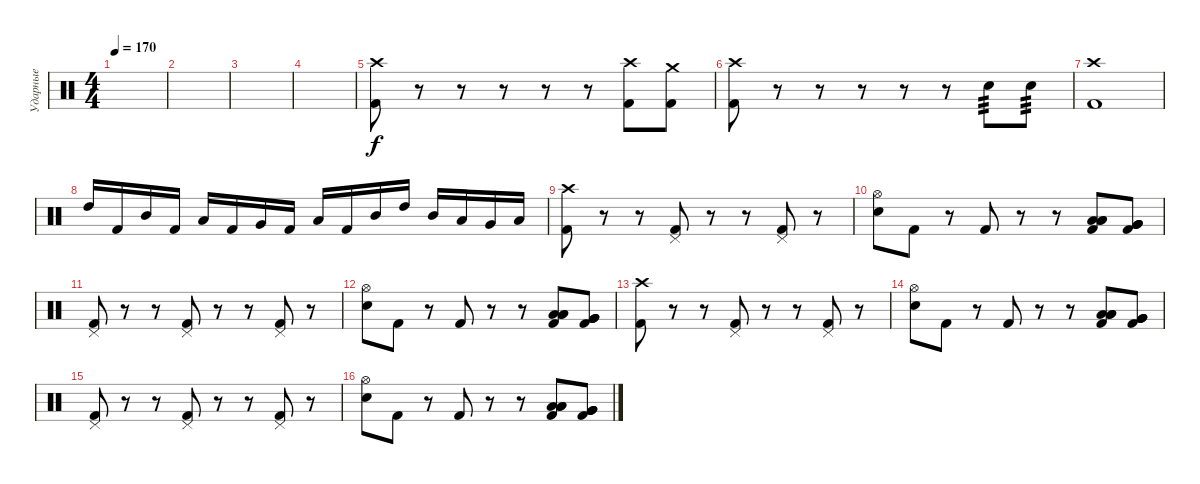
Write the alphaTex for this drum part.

\track ("Ударные" "Ударные") {instrument percussion}
\staff {score}
\articulation defaults
\ts (4 4)
\tempo 170
\clef neutral
\ks c
|
|
|
|
("Crash high (hit)" "Kick (hit) 2").8 r.8 r.8 r.8 r.8 r.8 ("Crash high (hit)" "Kick (hit) 2").8 ("Crash medium (hit)" "Kick (hit) 2").8 |
("Crash high (hit)" "Kick (hit) 2").8 r.8 r.8 r.8 r.8 r.8 "Snare (hit) 2".8{tp 3} "Snare (hit) 2".8{tp 3} |
("Crash high (hit)" "Kick (hit) 2").1 |
"High Tom (hit)".16 "Kick (hit) 2".16 "Mid Tom (hit)".16 "Kick (hit) 2".16 "Low Tom (hit)".16 "Kick (hit) 2".16 "Very Low Tom (hit)".16 "Kick (hit) 2".16 "Low Floor Tom (hit)".16 "Kick (hit) 2".16 "Mid Tom (hit)".16 "High Tom (hit)".16 "Mid Tom (hit)".16 "Low Tom (hit)".16 "Very Low Tom (hit)".16 "Low Floor Tom (hit)".16 |
("Crash high (hit)" "Kick (hit) 2").8 r.8 r.8 ("Pedal Hi-Hat (hit)" "Kick (hit) 2").8 r.8 r.8 ("Pedal Hi-Hat (hit)" "Kick (hit) 2").8 r.8 |
("Hi-Hat (open)" "Snare (hit) 2").8 "Kick (hit) 2".8 r.8 "Kick (hit) 2".8 r.8 r.8 ("Low Tom (hit)" "Low Tom (hit)" "Low Tom (hit)" "Kick (hit) 2").8 ("Very Low Tom (hit)" "Very Low Tom (hit)" "Very Low Tom (hit)" "Kick (hit) 2").8 |
("Pedal Hi-Hat (hit)" "Kick (hit) 2").8 r.8 r.8 ("Pedal Hi-Hat (hit)" "Kick (hit) 2").8 r.8 r.8 ("Pedal Hi-Hat (hit)" "Kick (hit) 2").8 r.8 |
("Hi-Hat (open)" "Snare (hit) 2").8 "Kick (hit) 2".8 r.8 "Kick (hit) 2".8 r.8 r.8 ("Low Tom (hit)" "Low Tom (hit)" "Low Tom (hit)" "Kick (hit) 2").8 ("Very Low Tom (hit)" "Very Low Tom (hit)" "Very Low Tom (hit)" "Kick (hit) 2").8 |
("Crash high (hit)" "Kick (hit) 2").8 r.8 r.8 ("Pedal Hi-Hat (hit)" "Kick (hit) 2").8 r.8 r.8 ("Pedal Hi-Hat (hit)" "Kick (hit) 2").8 r.8 |
("Hi-Hat (open)" "Snare (hit) 2").8 "Kick (hit) 2".8 r.8 "Kick (hit) 2".8 r.8 r.8 ("Low Tom (hit)" "Low Tom (hit)" "Low Tom (hit)" "Kick (hit) 2").8 ("Very Low Tom (hit)" "Very Low Tom (hit)" "Very Low Tom (hit)" "Kick (hit) 2").8 |
("Pedal Hi-Hat (hit)" "Kick (hit) 2").8 r.8 r.8 ("Pedal Hi-Hat (hit)" "Kick (hit) 2").8 r.8 r.8 ("Pedal Hi-Hat (hit)" "Kick (hit) 2").8 r.8 |
("Hi-Hat (open)" "Snare (hit) 2").8 "Kick (hit) 2".8 r.8 "Kick (hit) 2".8 r.8 r.8 ("Low Tom (hit)" "Low Tom (hit)" "Low Tom (hit)" "Kick (hit) 2").8 ("Very Low Tom (hit)" "Very Low Tom (hit)" "Very Low Tom (hit)" "Kick (hit) 2").8
